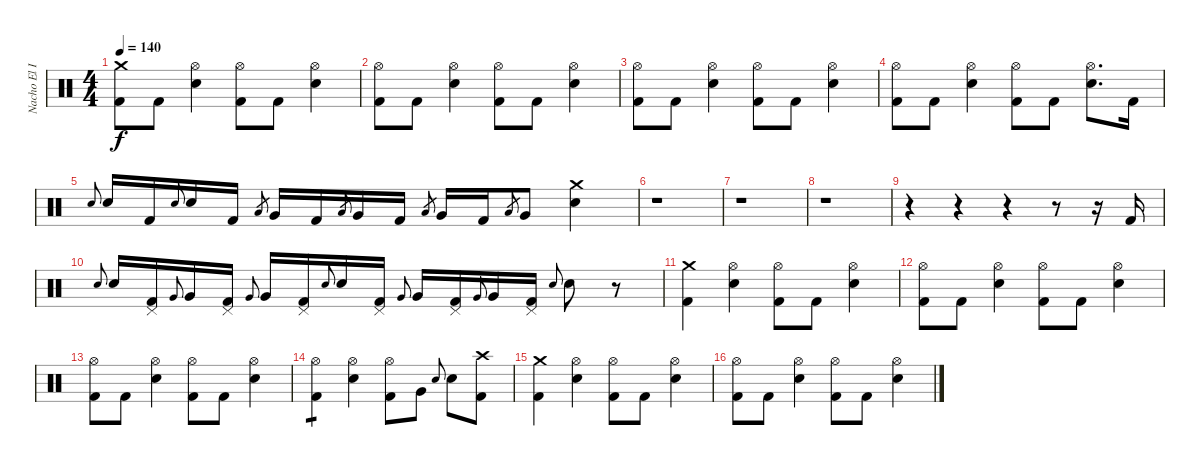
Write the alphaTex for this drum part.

\track ("Nacho El Implacable Gonzalez" "Nacho El I") {instrument percussion}
\staff {score}
\articulation defaults
\ts (4 4)
\tempo 140
\clef neutral
\ks c
("Crash medium (hit)" "Kick (hit) 2").8{dy f} "Kick (hit) 2".8 ("Hi-Hat (open)" "Electric Snare (hit)").4 ("Hi-Hat (open)" "Kick (hit) 2").8 "Kick (hit) 2".8 ("Hi-Hat (open)" "Electric Snare (hit)").4 |
("Hi-Hat (open)" "Kick (hit) 2").8 "Kick (hit) 2".8 ("Hi-Hat (open)" "Electric Snare (hit)").4 ("Hi-Hat (open)" "Kick (hit) 2").8 "Kick (hit) 2".8 ("Hi-Hat (open)" "Electric Snare (hit)").4 |
("Hi-Hat (open)" "Kick (hit) 2").8 "Kick (hit) 2".8 ("Hi-Hat (open)" "Electric Snare (hit)").4 ("Hi-Hat (open)" "Kick (hit) 2").8 "Kick (hit) 2".8 ("Hi-Hat (open)" "Electric Snare (hit)").4 |
("Hi-Hat (open)" "Kick (hit) 2").8 "Kick (hit) 2".8 ("Hi-Hat (open)" "Electric Snare (hit)").4 ("Hi-Hat (open)" "Kick (hit) 2").8 "Kick (hit) 2".8 ("Hi-Hat (open)" "Electric Snare (hit)").8{d} "Kick (hit) 2".16 |
"Electric Snare (hit)".8{gr onbeat} "Electric Snare (hit)".16 "Kick (hit) 2".16 "Electric Snare (hit)".8{gr onbeat} "Electric Snare (hit)".16 "Kick (hit) 2".16 "Low Tom (hit)".8{gr} "Very Low Tom (hit)".16 "Kick (hit) 2".16 "Low Tom (hit)".8{gr} "Very Low Tom (hit)".16 "Kick (hit) 2".16 "Low Tom (hit)".8{gr} "Very Low Tom (hit)".16 "Kick (hit) 2".16 "Low Tom (hit)".8{gr} "Very Low Tom (hit)".8 ("Crash medium (hit)" "Electric Snare (hit)").4 |
r.1 |
r.1 |
r.1 |
r.4 r.4 r.4 r.8 r.16 "Kick (hit) 2".16 |
"Electric Snare (hit)".8{gr onbeat} "Electric Snare (hit)".16 ("Pedal Hi-Hat (hit)" "Kick (hit) 2").16 "Very Low Tom (hit)".8{gr onbeat} "Very Low Tom (hit)".16 ("Pedal Hi-Hat (hit)" "Kick (hit) 2").16 "Very Low Tom (hit)".8{gr onbeat} "Very Low Tom (hit)".16 ("Pedal Hi-Hat (hit)" "Kick (hit) 2").16 "Electric Snare (hit)".8{gr onbeat} "Electric Snare (hit)".16 ("Pedal Hi-Hat (hit)" "Kick (hit) 2").16 "Very Low Tom (hit)".8{gr onbeat} "Very Low Tom (hit)".16 ("Pedal Hi-Hat (hit)" "Kick (hit) 2").16 "Very Low Tom (hit)".8{gr onbeat} "Very Low Tom (hit)".16 ("Pedal Hi-Hat (hit)" "Kick (hit) 2").16 "Electric Snare (hit)".8{gr onbeat} "Electric Snare (hit)".8 r.8 |
("Crash medium (hit)" "Kick (hit) 2").4 ("Hi-Hat (open)" "Electric Snare (hit)").4 ("Hi-Hat (open)" "Kick (hit) 2").8 "Kick (hit) 2".8 ("Hi-Hat (open)" "Electric Snare (hit)").4 |
("Hi-Hat (open)" "Kick (hit) 2").8 "Kick (hit) 2".8 ("Hi-Hat (open)" "Electric Snare (hit)").4 ("Hi-Hat (open)" "Kick (hit) 2").8 "Kick (hit) 2".8 ("Hi-Hat (open)" "Electric Snare (hit)").4 |
("Hi-Hat (open)" "Kick (hit) 2").8 "Kick (hit) 2".8 ("Hi-Hat (open)" "Electric Snare (hit)").4 ("Hi-Hat (open)" "Kick (hit) 2").8 "Kick (hit) 2".8 ("Hi-Hat (open)" "Electric Snare (hit)").4 |
("Hi-Hat (open)" "Kick (hit) 2").4{tp 1} ("Hi-Hat (open)" "Electric Snare (hit)").4 ("Hi-Hat (open)" "Kick (hit) 2").8 "Very Low Tom (hit)".8 "Electric Snare (hit)".8{gr onbeat} "Electric Snare (hit)".8 ("Crash high (hit)" "Kick (hit) 2").8 |
("Crash medium (hit)" "Kick (hit) 2").4 ("Hi-Hat (open)" "Electric Snare (hit)").4 ("Hi-Hat (open)" "Kick (hit) 2").8 "Kick (hit) 2".8 ("Hi-Hat (open)" "Electric Snare (hit)").4 |
("Hi-Hat (open)" "Kick (hit) 2").8 "Kick (hit) 2".8 ("Hi-Hat (open)" "Electric Snare (hit)").4 ("Hi-Hat (open)" "Kick (hit) 2").8 "Kick (hit) 2".8 ("Hi-Hat (open)" "Electric Snare (hit)").4
